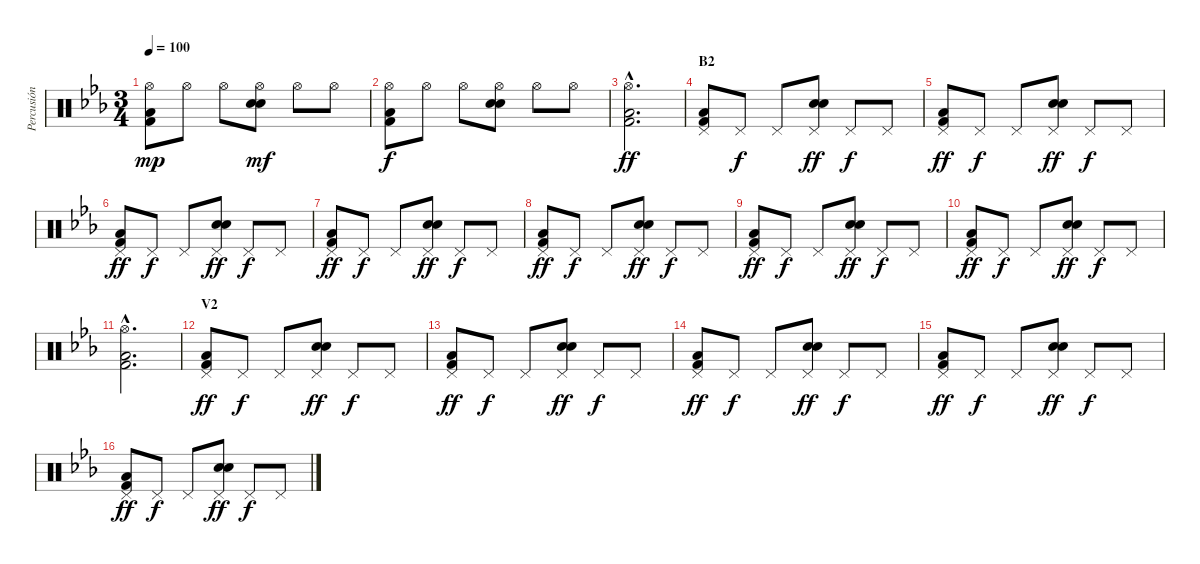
\track ("Percusión" "Percusión") {instrument percussion}
\staff {score}
\articulation defaults
\ts (3 4)
\tempo 100
\clef neutral
\ks eb
("Hi-Hat (open)" "Low Floor Tom (hit)" "Kick (hit) 2").8{dy mp} "Hi-Hat (open)".8 "Hi-Hat (open)".8 ("Hi-Hat (open)" "Electric Snare (hit)" "Snare (hit) 2").8{dy mf} "Hi-Hat (open)".8 "Hi-Hat (open)".8 |
("Hi-Hat (open)" "Low Floor Tom (hit)" "Kick (hit) 2").8{dy f} "Hi-Hat (open)".8 "Hi-Hat (open)".8 ("Hi-Hat (open)" "Electric Snare (hit)" "Snare (hit) 2").8 "Hi-Hat (open)".8 "Hi-Hat (open)".8 |
("Hi-Hat (open)"{hac} "Low Floor Tom (hit)"{hac} "Kick (hit) 2"{hac}).2{d dy ff} |
\section ("" "B2")
("Pedal Hi-Hat (hit)" "Low Floor Tom (hit)" "Kick (hit) 2").8 "Pedal Hi-Hat (hit)".8{dy f} "Pedal Hi-Hat (hit)".8 ("Pedal Hi-Hat (hit)" "Electric Snare (hit)" "Snare (hit) 2").8{dy ff} "Pedal Hi-Hat (hit)".8{dy f} "Pedal Hi-Hat (hit)".8 |
("Pedal Hi-Hat (hit)" "Low Floor Tom (hit)" "Kick (hit) 2").8{dy ff} "Pedal Hi-Hat (hit)".8{dy f} "Pedal Hi-Hat (hit)".8 ("Pedal Hi-Hat (hit)" "Electric Snare (hit)" "Snare (hit) 2").8{dy ff} "Pedal Hi-Hat (hit)".8{dy f} "Pedal Hi-Hat (hit)".8 |
("Pedal Hi-Hat (hit)" "Low Floor Tom (hit)" "Kick (hit) 2").8{dy ff} "Pedal Hi-Hat (hit)".8{dy f} "Pedal Hi-Hat (hit)".8 ("Pedal Hi-Hat (hit)" "Electric Snare (hit)" "Snare (hit) 2").8{dy ff} "Pedal Hi-Hat (hit)".8{dy f} "Pedal Hi-Hat (hit)".8 |
("Pedal Hi-Hat (hit)" "Low Floor Tom (hit)" "Kick (hit) 2").8{dy ff} "Pedal Hi-Hat (hit)".8{dy f} "Pedal Hi-Hat (hit)".8 ("Pedal Hi-Hat (hit)" "Electric Snare (hit)" "Snare (hit) 2").8{dy ff} "Pedal Hi-Hat (hit)".8{dy f} "Pedal Hi-Hat (hit)".8 |
("Pedal Hi-Hat (hit)" "Low Floor Tom (hit)" "Kick (hit) 2").8{dy ff} "Pedal Hi-Hat (hit)".8{dy f} "Pedal Hi-Hat (hit)".8 ("Pedal Hi-Hat (hit)" "Electric Snare (hit)" "Snare (hit) 2").8{dy ff} "Pedal Hi-Hat (hit)".8{dy f} "Pedal Hi-Hat (hit)".8 |
("Pedal Hi-Hat (hit)" "Low Floor Tom (hit)" "Kick (hit) 2").8{dy ff} "Pedal Hi-Hat (hit)".8{dy f} "Pedal Hi-Hat (hit)".8 ("Pedal Hi-Hat (hit)" "Electric Snare (hit)" "Snare (hit) 2").8{dy ff} "Pedal Hi-Hat (hit)".8{dy f} "Pedal Hi-Hat (hit)".8 |
("Pedal Hi-Hat (hit)" "Low Floor Tom (hit)" "Kick (hit) 2").8{dy ff} "Pedal Hi-Hat (hit)".8{dy f} "Pedal Hi-Hat (hit)".8 ("Pedal Hi-Hat (hit)" "Electric Snare (hit)" "Snare (hit) 2").8{dy ff} "Pedal Hi-Hat (hit)".8{dy f} "Pedal Hi-Hat (hit)".8 |
("Hi-Hat (open)"{hac} "Low Floor Tom (hit)"{hac} "Kick (hit) 2"{hac}).2{d} |
\section ("" "V2")
("Pedal Hi-Hat (hit)" "Low Floor Tom (hit)" "Kick (hit) 2").8{dy ff} "Pedal Hi-Hat (hit)".8{dy f} "Pedal Hi-Hat (hit)".8 ("Pedal Hi-Hat (hit)" "Electric Snare (hit)" "Snare (hit) 2").8{dy ff} "Pedal Hi-Hat (hit)".8{dy f} "Pedal Hi-Hat (hit)".8 |
("Pedal Hi-Hat (hit)" "Low Floor Tom (hit)" "Kick (hit) 2").8{dy ff} "Pedal Hi-Hat (hit)".8{dy f} "Pedal Hi-Hat (hit)".8 ("Pedal Hi-Hat (hit)" "Electric Snare (hit)" "Snare (hit) 2").8{dy ff} "Pedal Hi-Hat (hit)".8{dy f} "Pedal Hi-Hat (hit)".8 |
("Pedal Hi-Hat (hit)" "Low Floor Tom (hit)" "Kick (hit) 2").8{dy ff} "Pedal Hi-Hat (hit)".8{dy f} "Pedal Hi-Hat (hit)".8 ("Pedal Hi-Hat (hit)" "Electric Snare (hit)" "Snare (hit) 2").8{dy ff} "Pedal Hi-Hat (hit)".8{dy f} "Pedal Hi-Hat (hit)".8 |
("Pedal Hi-Hat (hit)" "Low Floor Tom (hit)" "Kick (hit) 2").8{dy ff} "Pedal Hi-Hat (hit)".8{dy f} "Pedal Hi-Hat (hit)".8 ("Pedal Hi-Hat (hit)" "Electric Snare (hit)" "Snare (hit) 2").8{dy ff} "Pedal Hi-Hat (hit)".8{dy f} "Pedal Hi-Hat (hit)".8 |
("Pedal Hi-Hat (hit)" "Low Floor Tom (hit)" "Kick (hit) 2").8{dy ff} "Pedal Hi-Hat (hit)".8{dy f} "Pedal Hi-Hat (hit)".8 ("Pedal Hi-Hat (hit)" "Electric Snare (hit)" "Snare (hit) 2").8{dy ff} "Pedal Hi-Hat (hit)".8{dy f} "Pedal Hi-Hat (hit)".8
